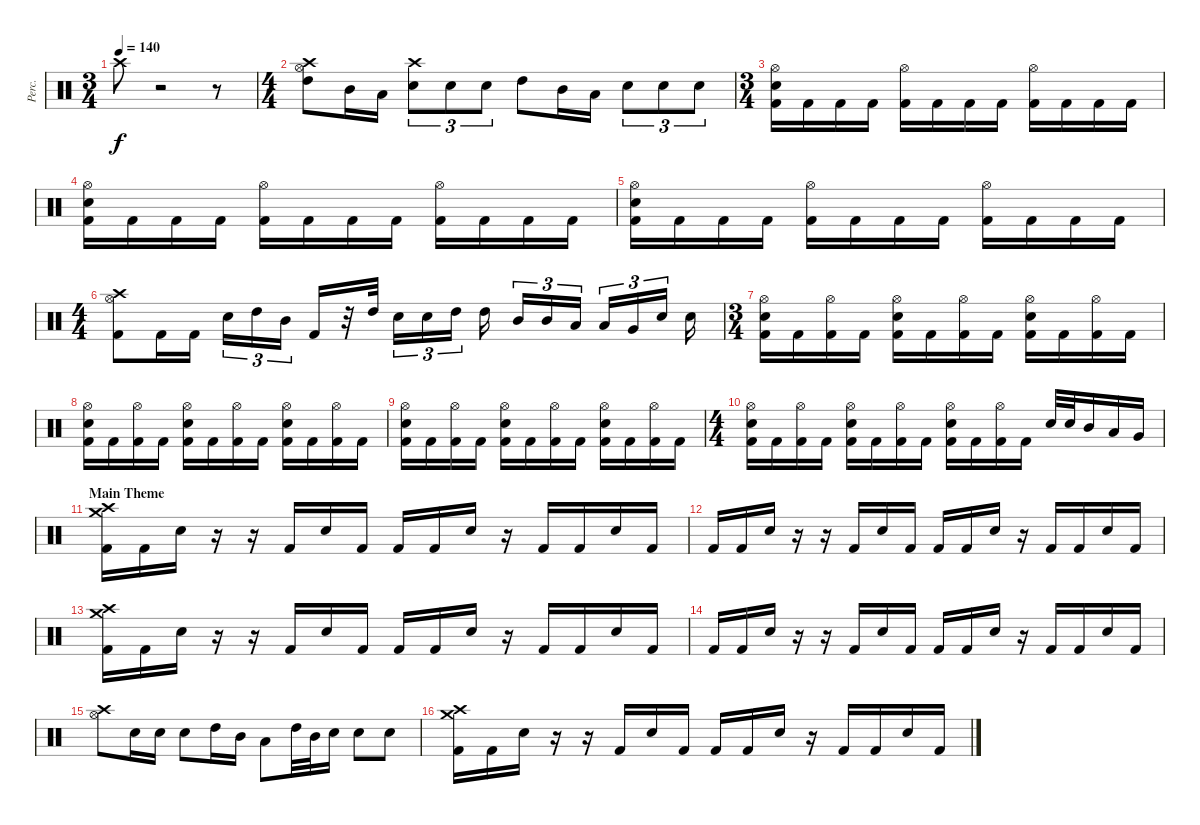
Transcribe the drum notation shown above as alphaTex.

\track ("Perc." "Perc.") {instrument percussion}
\staff {score}
\articulation defaults
\ts (3 4)
\tempo 140
\clef neutral
\ks c "Crash high (hit)".8{dy f}
r.2 r.8 |
\ts (4 4)
("Crash high (hit)" "Hi-Hat (open)" "High Tom (hit)").8 "Mid Tom (hit)".16 "Low Tom (hit)".16 ("Crash high (hit)" "Electric Snare (hit)").8{tu (3 2)} "Electric Snare (hit)".8{tu (3 2)} "Electric Snare (hit)".8{tu (3 2)} "High Tom (hit)".8 "Mid Tom (hit)".16 "Low Tom (hit)".16 "Electric Snare (hit)".8{tu (3 2)} "Electric Snare (hit)".8{tu (3 2)} "Electric Snare (hit)".8{tu (3 2)} |
\ts (3 4)
("Hi-Hat (open)" "Electric Snare (hit)" "Kick (hit) 2").16 "Kick (hit) 2".16 "Kick (hit) 2".16 "Kick (hit) 2".16 ("Hi-Hat (open)" "Kick (hit) 2").16 "Kick (hit) 2".16 "Kick (hit) 2".16 "Kick (hit) 2".16 ("Hi-Hat (open)" "Kick (hit) 2").16 "Kick (hit) 2".16 "Kick (hit) 2".16 "Kick (hit) 2".16 |
("Hi-Hat (open)" "Electric Snare (hit)" "Kick (hit) 2").16 "Kick (hit) 2".16 "Kick (hit) 2".16 "Kick (hit) 2".16 ("Hi-Hat (open)" "Kick (hit) 2").16 "Kick (hit) 2".16 "Kick (hit) 2".16 "Kick (hit) 2".16 ("Hi-Hat (open)" "Kick (hit) 2").16 "Kick (hit) 2".16 "Kick (hit) 2".16 "Kick (hit) 2".16 |
("Hi-Hat (open)" "Electric Snare (hit)" "Kick (hit) 2").16 "Kick (hit) 2".16 "Kick (hit) 2".16 "Kick (hit) 2".16 ("Hi-Hat (open)" "Kick (hit) 2").16 "Kick (hit) 2".16 "Kick (hit) 2".16 "Kick (hit) 2".16 ("Hi-Hat (open)" "Kick (hit) 2").16 "Kick (hit) 2".16 "Kick (hit) 2".16 "Kick (hit) 2".16 |
\ts (4 4)
("Crash high (hit)" "Hi-Hat (open)" "Kick (hit) 2").8 "Kick (hit) 2".16 "Kick (hit) 2".16 "Electric Snare (hit)".16{tu (3 2)} "High Tom (hit)".16{tu (3 2)} "Mid Tom (hit)".16{tu (3 2)} "Kick (hit) 2".16 r.32 "High Tom (hit)".32 "Electric Snare (hit)".16{tu (3 2)} "Electric Snare (hit)".16{tu (3 2)} "High Tom (hit)".16{tu (3 2)} "High Tom (hit)".16 "Mid Tom (hit)".16{tu (3 2)} "Mid Tom (hit)".16{tu (3 2)} "Low Tom (hit)".16{tu (3 2)} "Low Tom (hit)".16{tu (3 2)} "Very Low Tom (hit)".16{tu (3 2)} "Electric Snare (hit)".16{tu (3 2)} "Electric Snare (hit)".16 |
\ts (3 4)
("Hi-Hat (open)" "Electric Snare (hit)" "Kick (hit) 2").16 "Kick (hit) 2".16 ("Hi-Hat (open)" "Kick (hit) 2").16 "Kick (hit) 2".16 ("Hi-Hat (open)" "Electric Snare (hit)" "Kick (hit) 2").16 "Kick (hit) 2".16 ("Hi-Hat (open)" "Kick (hit) 2").16 "Kick (hit) 2".16 ("Hi-Hat (open)" "Electric Snare (hit)" "Kick (hit) 2").16 "Kick (hit) 2".16 ("Hi-Hat (open)" "Kick (hit) 2").16 "Kick (hit) 2".16 |
("Hi-Hat (open)" "Electric Snare (hit)" "Kick (hit) 2").16 "Kick (hit) 2".16 ("Hi-Hat (open)" "Kick (hit) 2").16 "Kick (hit) 2".16 ("Hi-Hat (open)" "Electric Snare (hit)" "Kick (hit) 2").16 "Kick (hit) 2".16 ("Hi-Hat (open)" "Kick (hit) 2").16 "Kick (hit) 2".16 ("Hi-Hat (open)" "Electric Snare (hit)" "Kick (hit) 2").16 "Kick (hit) 2".16 ("Hi-Hat (open)" "Kick (hit) 2").16 "Kick (hit) 2".16 |
("Hi-Hat (open)" "Electric Snare (hit)" "Kick (hit) 2").16 "Kick (hit) 2".16 ("Hi-Hat (open)" "Kick (hit) 2").16 "Kick (hit) 2".16 ("Hi-Hat (open)" "Electric Snare (hit)" "Kick (hit) 2").16 "Kick (hit) 2".16 ("Hi-Hat (open)" "Kick (hit) 2").16 "Kick (hit) 2".16 ("Hi-Hat (open)" "Electric Snare (hit)" "Kick (hit) 2").16 "Kick (hit) 2".16 ("Hi-Hat (open)" "Kick (hit) 2").16 "Kick (hit) 2".16 |
\ts (4 4)
("Hi-Hat (open)" "Electric Snare (hit)" "Kick (hit) 2").16 "Kick (hit) 2".16 ("Hi-Hat (open)" "Kick (hit) 2").16 "Kick (hit) 2".16 ("Hi-Hat (open)" "Electric Snare (hit)" "Kick (hit) 2").16 "Kick (hit) 2".16 ("Hi-Hat (open)" "Kick (hit) 2").16 "Kick (hit) 2".16 ("Hi-Hat (open)" "Electric Snare (hit)" "Kick (hit) 2").16 "Kick (hit) 2".16 ("Hi-Hat (open)" "Kick (hit) 2").16 "Kick (hit) 2".16 "Electric Snare (hit)".32 "Electric Snare (hit)".32 "Mid Tom (hit)".16 "Low Tom (hit)".16 "Very Low Tom (hit)".16 |
\section ("" "Main Theme")
("Crash high (hit)" "Crash medium (hit)" "Kick (hit) 2").16 "Kick (hit) 2".16 "Electric Snare (hit)".16 r.16 r.16 "Kick (hit) 2".16 "Electric Snare (hit)".16 "Kick (hit) 2".16 "Kick (hit) 2".16 "Kick (hit) 2".16 "Electric Snare (hit)".16 r.16 "Kick (hit) 2".16 "Kick (hit) 2".16 "Electric Snare (hit)".16 "Kick (hit) 2".16 |
"Kick (hit) 2".16 "Kick (hit) 2".16 "Electric Snare (hit)".16 r.16 r.16 "Kick (hit) 2".16 "Electric Snare (hit)".16 "Kick (hit) 2".16 "Kick (hit) 2".16 "Kick (hit) 2".16 "Electric Snare (hit)".16 r.16 "Kick (hit) 2".16 "Kick (hit) 2".16 "Electric Snare (hit)".16 "Kick (hit) 2".16 |
("Crash high (hit)" "Crash medium (hit)" "Kick (hit) 2").16 "Kick (hit) 2".16 "Electric Snare (hit)".16 r.16 r.16 "Kick (hit) 2".16 "Electric Snare (hit)".16 "Kick (hit) 2".16 "Kick (hit) 2".16 "Kick (hit) 2".16 "Electric Snare (hit)".16 r.16 "Kick (hit) 2".16 "Kick (hit) 2".16 "Electric Snare (hit)".16 "Kick (hit) 2".16 |
"Kick (hit) 2".16 "Kick (hit) 2".16 "Electric Snare (hit)".16 r.16 r.16 "Kick (hit) 2".16 "Electric Snare (hit)".16 "Kick (hit) 2".16 "Kick (hit) 2".16 "Kick (hit) 2".16 "Electric Snare (hit)".16 r.16 "Kick (hit) 2".16 "Kick (hit) 2".16 "Electric Snare (hit)".16 "Kick (hit) 2".16 |
("Crash high (hit)" "Hi-Hat (open)").8 "Electric Snare (hit)".16 "Electric Snare (hit)".16 "Electric Snare (hit)".8 "High Tom (hit)".16 "Mid Tom (hit)".16 "Low Tom (hit)".8 "High Tom (hit)".32 "Mid Tom (hit)".32 "Electric Snare (hit)".16 "Electric Snare (hit)".8 "Electric Snare (hit)".8 |
("Crash high (hit)" "Crash medium (hit)" "Kick (hit) 2").16 "Kick (hit) 2".16 "Electric Snare (hit)".16 r.16 r.16 "Kick (hit) 2".16 "Electric Snare (hit)".16 "Kick (hit) 2".16 "Kick (hit) 2".16 "Kick (hit) 2".16 "Electric Snare (hit)".16 r.16 "Kick (hit) 2".16 "Kick (hit) 2".16 "Electric Snare (hit)".16 "Kick (hit) 2".16
